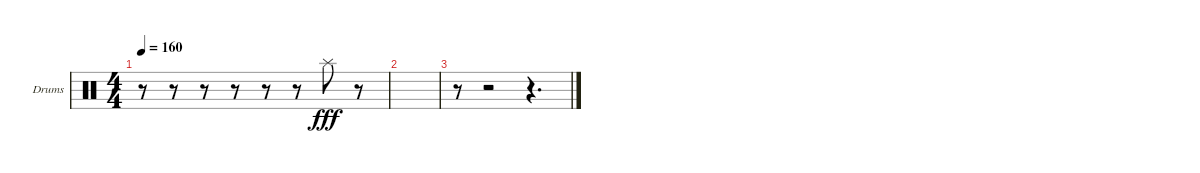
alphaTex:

\bracketExtendMode groupsimilarinstruments
\firstSystemTrackNameOrientation horizontal
\otherSystemsTrackNameOrientation horizontal
\track ("Gigante" "Drums") {instrument percussion}
\staff {score}
\articulation defaults
\ts (4 4)
\tempo 160
\clef neutral
\ks c
r.8{dy fff} r.8 r.8 r.8 r.8 r.8 "Splash (hit)".8 r.8 |
|
r.8 r.2 r.4{d}
